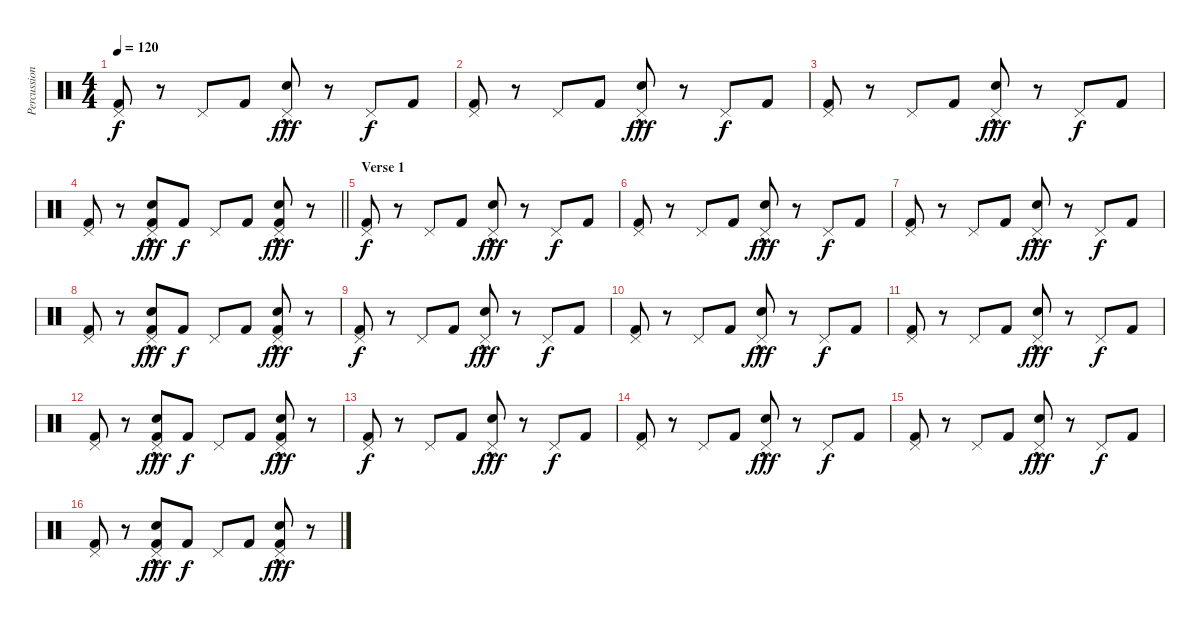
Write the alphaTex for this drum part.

\track ("Percussion" "Percussion") {instrument percussion}
\staff {score}
\articulation defaults
\ts (4 4)
\tempo 120
\clef neutral
\ks c
("Kick (hit) 2" "Pedal Hi-Hat (hit)").8{dy f} r.8 "Pedal Hi-Hat (hit)".8 "Kick (hit) 2".8 ("Snare (hit) 2"{hac} "Pedal Hi-Hat (hit)").8{dy fff} r.8 "Pedal Hi-Hat (hit)".8{dy f} "Kick (hit) 2".8 |
("Kick (hit) 2" "Pedal Hi-Hat (hit)").8 r.8 "Pedal Hi-Hat (hit)".8 "Kick (hit) 2".8 ("Snare (hit) 2"{hac} "Pedal Hi-Hat (hit)").8{dy fff} r.8 "Pedal Hi-Hat (hit)".8{dy f} "Kick (hit) 2".8 |
("Kick (hit) 2" "Pedal Hi-Hat (hit)").8 r.8 "Pedal Hi-Hat (hit)".8 "Kick (hit) 2".8 ("Snare (hit) 2"{hac} "Pedal Hi-Hat (hit)").8{dy fff} r.8 "Pedal Hi-Hat (hit)".8{dy f} "Kick (hit) 2".8 |
\barLineRight lightlight
("Kick (hit) 2" "Pedal Hi-Hat (hit)").8 r.8 ("Kick (hit) 2" "Snare (hit) 2"{hac} "Pedal Hi-Hat (hit)").8{dy fff} "Kick (hit) 2".8{dy f} "Pedal Hi-Hat (hit)".8 "Kick (hit) 2".8 ("Kick (hit) 2" "Snare (hit) 2"{hac} "Pedal Hi-Hat (hit)").8{dy fff} r.8 |
\section ("" "Verse 1")
("Kick (hit) 2" "Pedal Hi-Hat (hit)").8{dy f} r.8 "Pedal Hi-Hat (hit)".8 "Kick (hit) 2".8 ("Snare (hit) 2"{hac} "Pedal Hi-Hat (hit)").8{dy fff} r.8 "Pedal Hi-Hat (hit)".8{dy f} "Kick (hit) 2".8 |
("Kick (hit) 2" "Pedal Hi-Hat (hit)").8 r.8 "Pedal Hi-Hat (hit)".8 "Kick (hit) 2".8 ("Snare (hit) 2"{hac} "Pedal Hi-Hat (hit)").8{dy fff} r.8 "Pedal Hi-Hat (hit)".8{dy f} "Kick (hit) 2".8 |
("Kick (hit) 2" "Pedal Hi-Hat (hit)").8 r.8 "Pedal Hi-Hat (hit)".8 "Kick (hit) 2".8 ("Snare (hit) 2"{hac} "Pedal Hi-Hat (hit)").8{dy fff} r.8 "Pedal Hi-Hat (hit)".8{dy f} "Kick (hit) 2".8 |
("Kick (hit) 2" "Pedal Hi-Hat (hit)").8 r.8 ("Kick (hit) 2" "Snare (hit) 2"{hac} "Pedal Hi-Hat (hit)").8{dy fff} "Kick (hit) 2".8{dy f} "Pedal Hi-Hat (hit)".8 "Kick (hit) 2".8 ("Kick (hit) 2" "Snare (hit) 2"{hac} "Pedal Hi-Hat (hit)").8{dy fff} r.8 |
("Kick (hit) 2" "Pedal Hi-Hat (hit)").8{dy f} r.8 "Pedal Hi-Hat (hit)".8 "Kick (hit) 2".8 ("Snare (hit) 2"{hac} "Pedal Hi-Hat (hit)").8{dy fff} r.8 "Pedal Hi-Hat (hit)".8{dy f} "Kick (hit) 2".8 |
("Kick (hit) 2" "Pedal Hi-Hat (hit)").8 r.8 "Pedal Hi-Hat (hit)".8 "Kick (hit) 2".8 ("Snare (hit) 2"{hac} "Pedal Hi-Hat (hit)").8{dy fff} r.8 "Pedal Hi-Hat (hit)".8{dy f} "Kick (hit) 2".8 |
("Kick (hit) 2" "Pedal Hi-Hat (hit)").8 r.8 "Pedal Hi-Hat (hit)".8 "Kick (hit) 2".8 ("Snare (hit) 2"{hac} "Pedal Hi-Hat (hit)").8{dy fff} r.8 "Pedal Hi-Hat (hit)".8{dy f} "Kick (hit) 2".8 |
("Kick (hit) 2" "Pedal Hi-Hat (hit)").8 r.8 ("Kick (hit) 2" "Snare (hit) 2"{hac} "Pedal Hi-Hat (hit)").8{dy fff} "Kick (hit) 2".8{dy f} "Pedal Hi-Hat (hit)".8 "Kick (hit) 2".8 ("Kick (hit) 2" "Snare (hit) 2"{hac} "Pedal Hi-Hat (hit)").8{dy fff} r.8 |
("Kick (hit) 2" "Pedal Hi-Hat (hit)").8{dy f} r.8 "Pedal Hi-Hat (hit)".8 "Kick (hit) 2".8 ("Snare (hit) 2"{hac} "Pedal Hi-Hat (hit)").8{dy fff} r.8 "Pedal Hi-Hat (hit)".8{dy f} "Kick (hit) 2".8 |
("Kick (hit) 2" "Pedal Hi-Hat (hit)").8 r.8 "Pedal Hi-Hat (hit)".8 "Kick (hit) 2".8 ("Snare (hit) 2"{hac} "Pedal Hi-Hat (hit)").8{dy fff} r.8 "Pedal Hi-Hat (hit)".8{dy f} "Kick (hit) 2".8 |
("Kick (hit) 2" "Pedal Hi-Hat (hit)").8 r.8 "Pedal Hi-Hat (hit)".8 "Kick (hit) 2".8 ("Snare (hit) 2"{hac} "Pedal Hi-Hat (hit)").8{dy fff} r.8 "Pedal Hi-Hat (hit)".8{dy f} "Kick (hit) 2".8 |
("Kick (hit) 2" "Pedal Hi-Hat (hit)").8 r.8 ("Kick (hit) 2" "Snare (hit) 2"{hac} "Pedal Hi-Hat (hit)").8{dy fff} "Kick (hit) 2".8{dy f} "Pedal Hi-Hat (hit)".8 "Kick (hit) 2".8 ("Kick (hit) 2" "Snare (hit) 2"{hac} "Pedal Hi-Hat (hit)").8{dy fff} r.8
